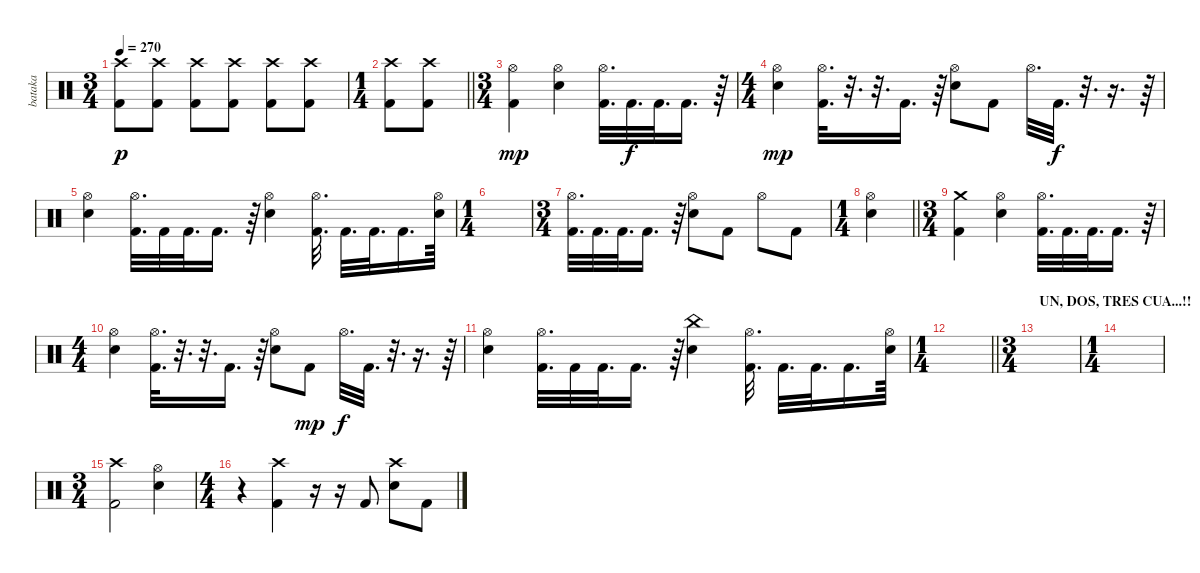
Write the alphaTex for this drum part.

\track ("bataka" "bataka") {instrument percussion}
\staff {score}
\articulation defaults
\ts (3 4)
\tempo 270
\clef neutral
\ks c
("Crash high (hit)" "Kick (hit) 2").8{dy p} ("Crash high (hit)" "Kick (hit) 2").8 ("Crash high (hit)" "Kick (hit) 2").8 ("Crash high (hit)" "Kick (hit) 2").8 ("Crash high (hit)" "Kick (hit) 2").8 ("Crash high (hit)" "Kick (hit) 2").8 |
\ts (1 4)
\barLineRight lightlight
("Crash high (hit)" "Kick (hit) 2").8 ("Crash high (hit)" "Kick (hit) 2").8 |
\ts (3 4)
("Hi-Hat (open)" "Kick (hit) 2").4{dy mp} ("Hi-Hat (open)" "Electric Snare (hit)").4 ("Hi-Hat (open)" "Kick (hit) 2").32{d} "Kick (hit) 2".32{d dy f} "Kick (hit) 2".32{d} "Kick (hit) 2".16{d} r.64 |
\ts (4 4)
("Hi-Hat (open)" "Electric Snare (hit)").4{dy mp} ("Hi-Hat (open)" "Kick (hit) 2").32{d} r.32{d} r.32{d} "Kick (hit) 2".16{d} r.64 ("Hi-Hat (open)" "Electric Snare (hit)").8 "Kick (hit) 2".8 "Hi-Hat (open)".32{d} "Kick (hit) 2".32{d dy f} r.32{d} r.16{d} r.64 |
("Hi-Hat (open)" "Electric Snare (hit)").4 ("Hi-Hat (open)" "Kick (hit) 2").32{d} "Kick (hit) 2".32 "Kick (hit) 2".32{d} "Kick (hit) 2".16{d} r.64 ("Hi-Hat (open)" "Electric Snare (hit)").4 ("Hi-Hat (open)" "Kick (hit) 2").32{d} "Kick (hit) 2".32{d} "Kick (hit) 2".32{d} "Kick (hit) 2".16{d} ("Hi-Hat (open)" "Electric Snare (hit)").64 |
\ts (1 4)
|
\ts (3 4)
("Hi-Hat (open)" "Kick (hit) 2").32{d} "Kick (hit) 2".32{d} "Kick (hit) 2".32{d} "Kick (hit) 2".16{d} r.64 ("Hi-Hat (open)" "Electric Snare (hit)").8 "Kick (hit) 2".8 "Hi-Hat (open)".8 "Kick (hit) 2".8 |
\ts (1 4)
\barLineRight lightlight
("Hi-Hat (open)" "Electric Snare (hit)").4 |
\ts (3 4)
("Crash medium (hit)" "Kick (hit) 2").4 ("Hi-Hat (open)" "Electric Snare (hit)").4 ("Hi-Hat (open)" "Kick (hit) 2").32{d} "Kick (hit) 2".32{d} "Kick (hit) 2".32{d} "Kick (hit) 2".16{d} r.64 |
\ts (4 4)
("Hi-Hat (open)" "Electric Snare (hit)").4 ("Hi-Hat (open)" "Kick (hit) 2").32{d} r.32{d} r.32{d} "Kick (hit) 2".16{d} r.64 ("Hi-Hat (open)" "Electric Snare (hit)").8 "Kick (hit) 2".8{dy mp} "Hi-Hat (open)".32{d dy f} "Kick (hit) 2".32{d} r.32{d} r.16{d} r.64 |
("Hi-Hat (open)" "Electric Snare (hit)").4 ("Hi-Hat (open)" "Kick (hit) 2").32{d} "Kick (hit) 2".32 "Kick (hit) 2".32{d} "Kick (hit) 2".16{d} r.64 ("China (hit)" "Electric Snare (hit)").4 ("Hi-Hat (open)" "Kick (hit) 2").32{d} "Kick (hit) 2".32{d} "Kick (hit) 2".32{d} "Kick (hit) 2".16{d} ("Hi-Hat (open)" "Electric Snare (hit)").64 |
\ts (1 4)
\barLineRight lightlight
|
\ts (3 4)
\section ("" "UN, DOS, TRES CUA...!!")
|
\ts (1 4)
|
\ts (3 4)
("Crash high (hit)" "Kick (hit) 2").2 ("Hi-Hat (open)" "Electric Snare (hit)").4 |
\ts (4 4)
r.4 ("Crash high (hit)" "Kick (hit) 2").4 r.16 r.16 "Kick (hit) 2".8 ("Crash high (hit)" "Electric Snare (hit)").8 "Kick (hit) 2".8
